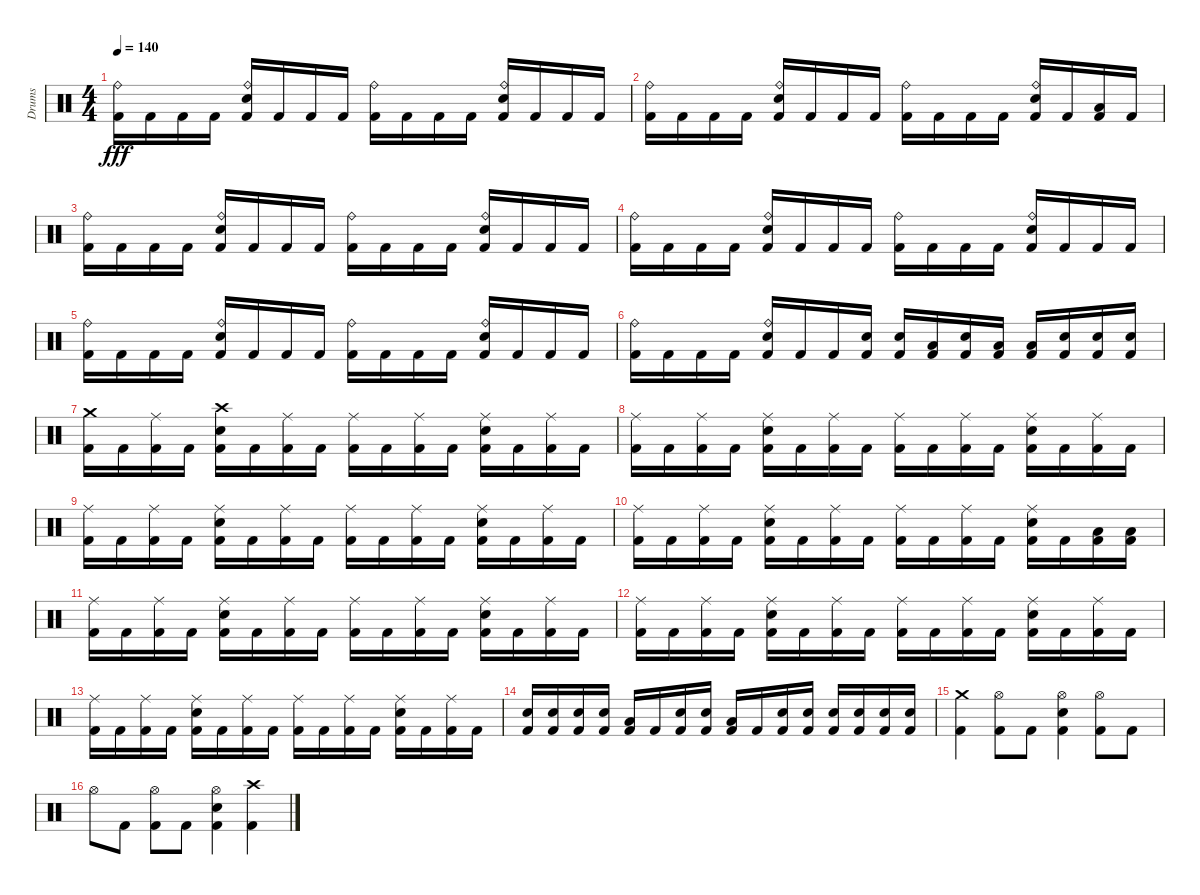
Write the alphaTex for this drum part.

\track ("Drums" "Drums") {instrument percussion}
\staff {score}
\articulation defaults
\ts (4 4)
\tempo 140
\clef neutral
\ks c
("Kick (hit) 2" "Ride (bell)").16{dy fff} "Kick (hit) 2".16 "Kick (hit) 2".16 "Kick (hit) 2".16 ("Kick (hit) 2" "Electric Snare (hit)" "Ride (bell)").16 "Kick (hit) 2".16 "Kick (hit) 2".16 "Kick (hit) 2".16 ("Kick (hit) 2" "Ride (bell)").16 "Kick (hit) 2".16 "Kick (hit) 2".16 "Kick (hit) 2".16 ("Kick (hit) 2" "Electric Snare (hit)" "Ride (bell)").16 "Kick (hit) 2".16 "Kick (hit) 2".16 "Kick (hit) 2".16 |
("Kick (hit) 2" "Ride (bell)").16 "Kick (hit) 2".16 "Kick (hit) 2".16 "Kick (hit) 2".16 ("Kick (hit) 2" "Electric Snare (hit)" "Ride (bell)").16 "Kick (hit) 2".16 "Kick (hit) 2".16 "Kick (hit) 2".16 ("Kick (hit) 2" "Ride (bell)").16 "Kick (hit) 2".16 "Kick (hit) 2".16 "Kick (hit) 2".16 ("Kick (hit) 2" "Electric Snare (hit)" "Ride (bell)").16 "Kick (hit) 2".16 ("Kick (hit) 2" "Low Floor Tom (hit)").16 "Kick (hit) 2".16 |
("Kick (hit) 2" "Ride (bell)").16 "Kick (hit) 2".16 "Kick (hit) 2".16 "Kick (hit) 2".16 ("Kick (hit) 2" "Electric Snare (hit)" "Ride (bell)").16 "Kick (hit) 2".16 "Kick (hit) 2".16 "Kick (hit) 2".16 ("Kick (hit) 2" "Ride (bell)").16 "Kick (hit) 2".16 "Kick (hit) 2".16 "Kick (hit) 2".16 ("Kick (hit) 2" "Electric Snare (hit)" "Ride (bell)").16 "Kick (hit) 2".16 "Kick (hit) 2".16 "Kick (hit) 2".16 |
("Kick (hit) 2" "Ride (bell)").16 "Kick (hit) 2".16 "Kick (hit) 2".16 "Kick (hit) 2".16 ("Kick (hit) 2" "Electric Snare (hit)" "Ride (bell)").16 "Kick (hit) 2".16 "Kick (hit) 2".16 "Kick (hit) 2".16 ("Kick (hit) 2" "Ride (bell)").16 "Kick (hit) 2".16 "Kick (hit) 2".16 "Kick (hit) 2".16 ("Kick (hit) 2" "Electric Snare (hit)" "Ride (bell)").16 "Kick (hit) 2".16 "Kick (hit) 2".16 "Kick (hit) 2".16 |
("Kick (hit) 2" "Ride (bell)").16 "Kick (hit) 2".16 "Kick (hit) 2".16 "Kick (hit) 2".16 ("Kick (hit) 2" "Electric Snare (hit)" "Ride (bell)").16 "Kick (hit) 2".16 "Kick (hit) 2".16 "Kick (hit) 2".16 ("Kick (hit) 2" "Ride (bell)").16 "Kick (hit) 2".16 "Kick (hit) 2".16 "Kick (hit) 2".16 ("Kick (hit) 2" "Electric Snare (hit)" "Ride (bell)").16 "Kick (hit) 2".16 "Kick (hit) 2".16 "Kick (hit) 2".16 |
("Kick (hit) 2" "Ride (bell)").16 "Kick (hit) 2".16 "Kick (hit) 2".16 "Kick (hit) 2".16 ("Kick (hit) 2" "Electric Snare (hit)" "Ride (bell)").16 "Kick (hit) 2".16 "Kick (hit) 2".16 ("Kick (hit) 2" "Electric Snare (hit)").16 ("Kick (hit) 2" "Electric Snare (hit)").16 ("Kick (hit) 2" "Low Tom (hit)").16 ("Kick (hit) 2" "Electric Snare (hit)").16 ("Kick (hit) 2" "Low Tom (hit)").16 ("Kick (hit) 2" "Low Tom (hit)").16 ("Kick (hit) 2" "Electric Snare (hit)").16 ("Kick (hit) 2" "Electric Snare (hit)").16 ("Kick (hit) 2" "Electric Snare (hit)").16 |
("Kick (hit) 2" "Crash medium (hit)").16 "Kick (hit) 2".16 ("Kick (hit) 2" "Ride (middle)").16 "Kick (hit) 2".16 ("Kick (hit) 2" "Electric Snare (hit)" "Crash high (hit)").16 "Kick (hit) 2".16 ("Kick (hit) 2" "Ride (middle)").16 "Kick (hit) 2".16 ("Kick (hit) 2" "Ride (middle)").16 "Kick (hit) 2".16 ("Kick (hit) 2" "Ride (middle)").16 "Kick (hit) 2".16 ("Kick (hit) 2" "Electric Snare (hit)" "Ride (middle)").16 "Kick (hit) 2".16 ("Kick (hit) 2" "Ride (middle)").16 "Kick (hit) 2".16 |
("Kick (hit) 2" "Ride (middle)").16 "Kick (hit) 2".16 ("Kick (hit) 2" "Ride (middle)").16 "Kick (hit) 2".16 ("Kick (hit) 2" "Electric Snare (hit)" "Ride (middle)").16 "Kick (hit) 2".16 ("Kick (hit) 2" "Ride (middle)").16 "Kick (hit) 2".16 ("Kick (hit) 2" "Ride (middle)").16 "Kick (hit) 2".16 ("Kick (hit) 2" "Ride (middle)").16 "Kick (hit) 2".16 ("Kick (hit) 2" "Electric Snare (hit)" "Ride (middle)").16 "Kick (hit) 2".16 ("Kick (hit) 2" "Ride (middle)").16 "Kick (hit) 2".16 |
("Kick (hit) 2" "Ride (middle)").16 "Kick (hit) 2".16 ("Kick (hit) 2" "Ride (middle)").16 "Kick (hit) 2".16 ("Kick (hit) 2" "Electric Snare (hit)" "Ride (middle)").16 "Kick (hit) 2".16 ("Kick (hit) 2" "Ride (middle)").16 "Kick (hit) 2".16 ("Kick (hit) 2" "Ride (middle)").16 "Kick (hit) 2".16 ("Kick (hit) 2" "Ride (middle)").16 "Kick (hit) 2".16 ("Kick (hit) 2" "Electric Snare (hit)" "Ride (middle)").16 "Kick (hit) 2".16 ("Kick (hit) 2" "Ride (middle)").16 "Kick (hit) 2".16 |
("Kick (hit) 2" "Ride (middle)").16 "Kick (hit) 2".16 ("Kick (hit) 2" "Ride (middle)").16 "Kick (hit) 2".16 ("Kick (hit) 2" "Electric Snare (hit)" "Ride (middle)").16 "Kick (hit) 2".16 ("Kick (hit) 2" "Ride (middle)").16 "Kick (hit) 2".16 ("Kick (hit) 2" "Ride (middle)").16 "Kick (hit) 2".16 ("Kick (hit) 2" "Ride (middle)").16 "Kick (hit) 2".16 ("Kick (hit) 2" "Electric Snare (hit)" "Ride (middle)").16 "Kick (hit) 2".16 ("Kick (hit) 2" "Low Floor Tom (hit)").16 ("Kick (hit) 2" "Low Floor Tom (hit)").16 |
("Kick (hit) 2" "Ride (middle)").16 "Kick (hit) 2".16 ("Kick (hit) 2" "Ride (middle)").16 "Kick (hit) 2".16 ("Kick (hit) 2" "Electric Snare (hit)" "Ride (middle)").16 "Kick (hit) 2".16 ("Kick (hit) 2" "Ride (middle)").16 "Kick (hit) 2".16 ("Kick (hit) 2" "Ride (middle)").16 "Kick (hit) 2".16 ("Kick (hit) 2" "Ride (middle)").16 "Kick (hit) 2".16 ("Kick (hit) 2" "Electric Snare (hit)" "Ride (middle)").16 "Kick (hit) 2".16 ("Kick (hit) 2" "Ride (middle)").16 "Kick (hit) 2".16 |
("Kick (hit) 2" "Ride (middle)").16 "Kick (hit) 2".16 ("Kick (hit) 2" "Ride (middle)").16 "Kick (hit) 2".16 ("Kick (hit) 2" "Electric Snare (hit)" "Ride (middle)").16 "Kick (hit) 2".16 ("Kick (hit) 2" "Ride (middle)").16 "Kick (hit) 2".16 ("Kick (hit) 2" "Ride (middle)").16 "Kick (hit) 2".16 ("Kick (hit) 2" "Ride (middle)").16 "Kick (hit) 2".16 ("Kick (hit) 2" "Electric Snare (hit)" "Ride (middle)").16 "Kick (hit) 2".16 ("Kick (hit) 2" "Ride (middle)").16 "Kick (hit) 2".16 |
("Kick (hit) 2" "Ride (middle)").16 "Kick (hit) 2".16 ("Kick (hit) 2" "Ride (middle)").16 "Kick (hit) 2".16 ("Kick (hit) 2" "Electric Snare (hit)" "Ride (middle)").16 "Kick (hit) 2".16 ("Kick (hit) 2" "Ride (middle)").16 "Kick (hit) 2".16 ("Kick (hit) 2" "Ride (middle)").16 "Kick (hit) 2".16 ("Kick (hit) 2" "Ride (middle)").16 "Kick (hit) 2".16 ("Kick (hit) 2" "Electric Snare (hit)" "Ride (middle)").16 "Kick (hit) 2".16 ("Kick (hit) 2" "Ride (middle)").16 "Kick (hit) 2".16 |
("Kick (hit) 2" "Electric Snare (hit)").16 ("Kick (hit) 2" "Electric Snare (hit)").16 ("Kick (hit) 2" "Electric Snare (hit)").16 ("Kick (hit) 2" "Electric Snare (hit)").16 ("Kick (hit) 2" "Low Floor Tom (hit)").16 "Kick (hit) 2".16 ("Kick (hit) 2" "Electric Snare (hit)").16 ("Kick (hit) 2" "Electric Snare (hit)").16 ("Kick (hit) 2" "Low Floor Tom (hit)").16 "Kick (hit) 2".16 ("Kick (hit) 2" "Electric Snare (hit)").16 ("Kick (hit) 2" "Electric Snare (hit)").16 ("Kick (hit) 2" "Electric Snare (hit)").16 ("Kick (hit) 2" "Electric Snare (hit)").16 ("Kick (hit) 2" "Electric Snare (hit)").16 ("Kick (hit) 2" "Electric Snare (hit)").16 |
("Kick (hit) 2" "Crash medium (hit)").4 ("Kick (hit) 2" "Hi-Hat (open)").8 "Kick (hit) 2".8 ("Kick (hit) 2" "Electric Snare (hit)" "Hi-Hat (open)").4 ("Kick (hit) 2" "Hi-Hat (open)").8 "Kick (hit) 2".8 |
"Hi-Hat (open)".8 "Kick (hit) 2".8 ("Kick (hit) 2" "Hi-Hat (open)").8 "Kick (hit) 2".8 ("Kick (hit) 2" "Electric Snare (hit)" "Hi-Hat (open)").4 ("Kick (hit) 2" "Crash high (hit)").4
